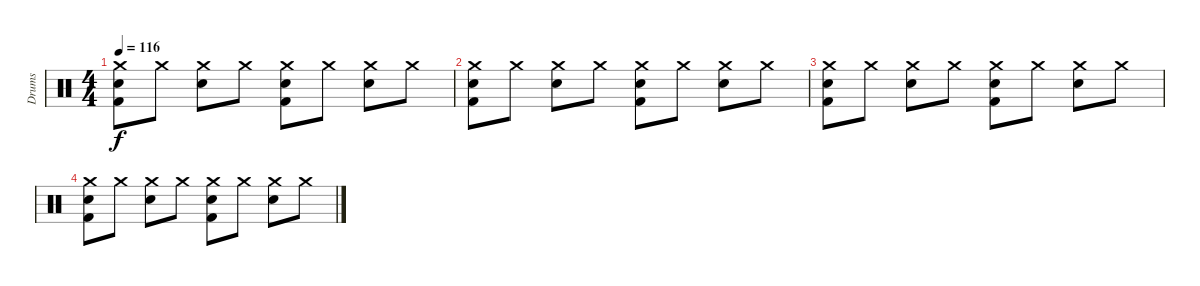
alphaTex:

\track ("Drums" "Drums") {instrument percussion}
\staff {score}
\articulation defaults
\ts (4 4)
\tempo 116
\clef neutral
\ks c
("Crash medium (hit)" "Electric Snare (hit)" "Kick (hit) 2").8{dy f volume 0} "Crash medium (hit)".8 ("Crash medium (hit)" "Electric Snare (hit)").8 "Crash medium (hit)".8 ("Crash medium (hit)" "Electric Snare (hit)" "Kick (hit) 2").8 "Crash medium (hit)".8 ("Crash medium (hit)" "Electric Snare (hit)").8 "Crash medium (hit)".8 |
("Crash medium (hit)" "Electric Snare (hit)" "Kick (hit) 2").8 "Crash medium (hit)".8 ("Crash medium (hit)" "Electric Snare (hit)").8 "Crash medium (hit)".8 ("Crash medium (hit)" "Electric Snare (hit)" "Kick (hit) 2").8 "Crash medium (hit)".8 ("Crash medium (hit)" "Electric Snare (hit)").8 "Crash medium (hit)".8 |
("Crash medium (hit)" "Electric Snare (hit)" "Kick (hit) 2").8 "Crash medium (hit)".8 ("Crash medium (hit)" "Electric Snare (hit)").8 "Crash medium (hit)".8 ("Crash medium (hit)" "Electric Snare (hit)" "Kick (hit) 2").8 "Crash medium (hit)".8 ("Crash medium (hit)" "Electric Snare (hit)").8 "Crash medium (hit)".8 |
("Crash medium (hit)" "Electric Snare (hit)" "Kick (hit) 2").8 "Crash medium (hit)".8 ("Crash medium (hit)" "Electric Snare (hit)").8 "Crash medium (hit)".8 ("Crash medium (hit)" "Electric Snare (hit)" "Kick (hit) 2").8 "Crash medium (hit)".8 ("Crash medium (hit)" "Electric Snare (hit)").8 "Crash medium (hit)".8
